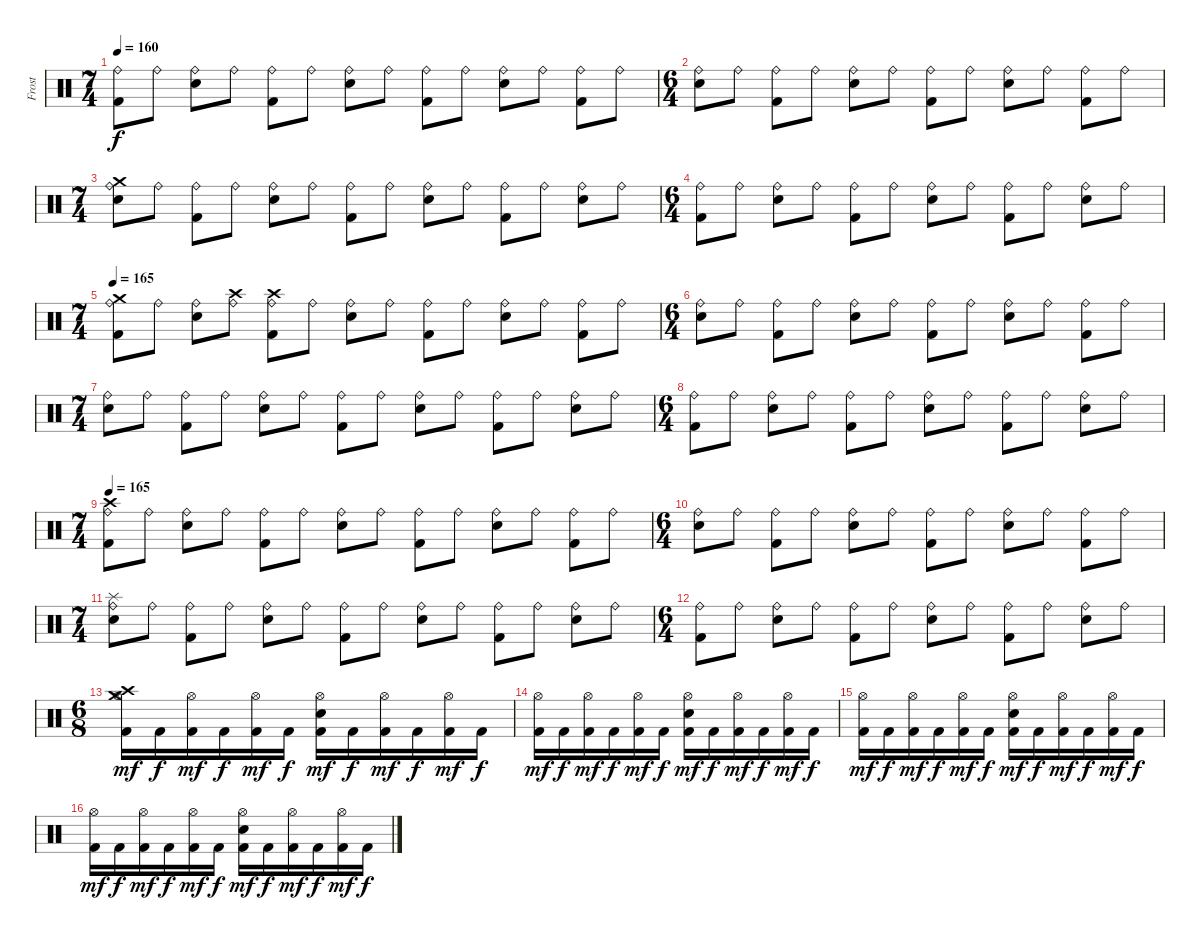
\track ("Frost" "Frost") {instrument percussion}
\staff {score}
\articulation defaults
\ts (7 4)
\tempo 160
\clef neutral
\ks c
("Kick (hit) 2" "Ride (bell)").8{dy f} "Ride (bell)".8 ("Snare (hit) 2" "Ride (bell)").8 "Ride (bell)".8 ("Kick (hit) 2" "Ride (bell)").8 "Ride (bell)".8 ("Snare (hit) 2" "Ride (bell)").8 "Ride (bell)".8 ("Kick (hit) 2" "Ride (bell)").8 "Ride (bell)".8 ("Snare (hit) 2" "Ride (bell)").8 "Ride (bell)".8 ("Kick (hit) 2" "Ride (bell)").8 "Ride (bell)".8 |
\ts (6 4)
("Snare (hit) 2" "Ride (bell)").8 "Ride (bell)".8 ("Kick (hit) 2" "Ride (bell)").8 "Ride (bell)".8 ("Snare (hit) 2" "Ride (bell)").8 "Ride (bell)".8 ("Kick (hit) 2" "Ride (bell)").8 "Ride (bell)".8 ("Snare (hit) 2" "Ride (bell)").8 "Ride (bell)".8 ("Kick (hit) 2" "Ride (bell)").8 "Ride (bell)".8 |
\ts (7 4)
("Crash medium (hit)" "Snare (hit) 2" "Ride (bell)").8 "Ride (bell)".8 ("Kick (hit) 2" "Ride (bell)").8 "Ride (bell)".8 ("Snare (hit) 2" "Ride (bell)").8 "Ride (bell)".8 ("Kick (hit) 2" "Ride (bell)").8 "Ride (bell)".8 ("Snare (hit) 2" "Ride (bell)").8 "Ride (bell)".8 ("Kick (hit) 2" "Ride (bell)").8 "Ride (bell)".8 ("Snare (hit) 2" "Ride (bell)").8 "Ride (bell)".8 |
\ts (6 4)
("Kick (hit) 2" "Ride (bell)").8 "Ride (bell)".8 ("Snare (hit) 2" "Ride (bell)").8 "Ride (bell)".8 ("Kick (hit) 2" "Ride (bell)").8 "Ride (bell)".8 ("Snare (hit) 2" "Ride (bell)").8 "Ride (bell)".8 ("Kick (hit) 2" "Ride (bell)").8 "Ride (bell)".8 ("Snare (hit) 2" "Ride (bell)").8 "Ride (bell)".8 |
\ts (7 4)
\tempo 165
("Kick (hit) 2" "Crash medium (hit)" "Ride (bell)").8 "Ride (bell)".8 ("Snare (hit) 2" "Ride (bell)").8 ("Crash high (hit)" "Ride (bell)").8 ("Kick (hit) 2" "Crash high (hit)" "Ride (bell)").8 "Ride (bell)".8 ("Snare (hit) 2" "Ride (bell)").8 "Ride (bell)".8 ("Kick (hit) 2" "Ride (bell)").8 "Ride (bell)".8 ("Snare (hit) 2" "Ride (bell)").8 "Ride (bell)".8 ("Kick (hit) 2" "Ride (bell)").8 "Ride (bell)".8 |
\ts (6 4)
("Snare (hit) 2" "Ride (bell)").8 "Ride (bell)".8 ("Kick (hit) 2" "Ride (bell)").8 "Ride (bell)".8 ("Snare (hit) 2" "Ride (bell)").8 "Ride (bell)".8 ("Kick (hit) 2" "Ride (bell)").8 "Ride (bell)".8 ("Snare (hit) 2" "Ride (bell)").8 "Ride (bell)".8 ("Kick (hit) 2" "Ride (bell)").8 "Ride (bell)".8 |
\ts (7 4)
("Snare (hit) 2" "Ride (bell)").8 "Ride (bell)".8 ("Kick (hit) 2" "Ride (bell)").8 "Ride (bell)".8 ("Snare (hit) 2" "Ride (bell)").8 "Ride (bell)".8 ("Kick (hit) 2" "Ride (bell)").8 "Ride (bell)".8 ("Snare (hit) 2" "Ride (bell)").8 "Ride (bell)".8 ("Kick (hit) 2" "Ride (bell)").8 "Ride (bell)".8 ("Snare (hit) 2" "Ride (bell)").8 "Ride (bell)".8 |
\ts (6 4)
("Kick (hit) 2" "Ride (bell)").8 "Ride (bell)".8 ("Snare (hit) 2" "Ride (bell)").8 "Ride (bell)".8 ("Kick (hit) 2" "Ride (bell)").8 "Ride (bell)".8 ("Snare (hit) 2" "Ride (bell)").8 "Ride (bell)".8 ("Kick (hit) 2" "Ride (bell)").8 "Ride (bell)".8 ("Snare (hit) 2" "Ride (bell)").8 "Ride (bell)".8 |
\ts (7 4)
\tempo 165
("Kick (hit) 2" "Crash high (hit)" "Ride (bell)").8 "Ride (bell)".8 ("Snare (hit) 2" "Ride (bell)").8 "Ride (bell)".8 ("Kick (hit) 2" "Ride (bell)").8 "Ride (bell)".8 ("Snare (hit) 2" "Ride (bell)").8 "Ride (bell)".8 ("Kick (hit) 2" "Ride (bell)").8 "Ride (bell)".8 ("Snare (hit) 2" "Ride (bell)").8 "Ride (bell)".8 ("Kick (hit) 2" "Ride (bell)").8 "Ride (bell)".8 |
\ts (6 4)
("Snare (hit) 2" "Ride (bell)").8 "Ride (bell)".8 ("Kick (hit) 2" "Ride (bell)").8 "Ride (bell)".8 ("Snare (hit) 2" "Ride (bell)").8 "Ride (bell)".8 ("Kick (hit) 2" "Ride (bell)").8 "Ride (bell)".8 ("Snare (hit) 2" "Ride (bell)").8 "Ride (bell)".8 ("Kick (hit) 2" "Ride (bell)").8 "Ride (bell)".8 |
\ts (7 4)
("Splash (hit)" "Snare (hit) 2" "Ride (bell)").8 "Ride (bell)".8 ("Kick (hit) 2" "Ride (bell)").8 "Ride (bell)".8 ("Snare (hit) 2" "Ride (bell)").8 "Ride (bell)".8 ("Kick (hit) 2" "Ride (bell)").8 "Ride (bell)".8 ("Snare (hit) 2" "Ride (bell)").8 "Ride (bell)".8 ("Kick (hit) 2" "Ride (bell)").8 "Ride (bell)".8 ("Snare (hit) 2" "Ride (bell)").8 "Ride (bell)".8 |
\ts (6 4)
("Kick (hit) 2" "Ride (bell)").8 "Ride (bell)".8 ("Snare (hit) 2" "Ride (bell)").8 "Ride (bell)".8 ("Kick (hit) 2" "Ride (bell)").8 "Ride (bell)".8 ("Snare (hit) 2" "Ride (bell)").8 "Ride (bell)".8 ("Kick (hit) 2" "Ride (bell)").8 "Ride (bell)".8 ("Snare (hit) 2" "Ride (bell)").8 "Ride (bell)".8 |
\ts (6 8)
("Kick (hit) 2" "Crash high (hit)" "Crash medium (hit)" "Hi-Hat (open)").16{dy mf} "Kick (hit) 2".16{dy f} ("Kick (hit) 2" "Hi-Hat (open)").16{dy mf} "Kick (hit) 2".16{dy f} ("Kick (hit) 2" "Hi-Hat (open)").16{dy mf} "Kick (hit) 2".16{dy f} ("Kick (hit) 2" "Hi-Hat (open)" "Snare (hit) 2").16{dy mf} "Kick (hit) 2".16{dy f} ("Kick (hit) 2" "Hi-Hat (open)").16{dy mf} "Kick (hit) 2".16{dy f} ("Kick (hit) 2" "Hi-Hat (open)").16{dy mf} "Kick (hit) 2".16{dy f} |
("Kick (hit) 2" "Hi-Hat (open)").16{dy mf} "Kick (hit) 2".16{dy f} ("Kick (hit) 2" "Hi-Hat (open)").16{dy mf} "Kick (hit) 2".16{dy f} ("Kick (hit) 2" "Hi-Hat (open)").16{dy mf} "Kick (hit) 2".16{dy f} ("Kick (hit) 2" "Hi-Hat (open)" "Snare (hit) 2").16{dy mf} "Kick (hit) 2".16{dy f} ("Kick (hit) 2" "Hi-Hat (open)").16{dy mf} "Kick (hit) 2".16{dy f} ("Kick (hit) 2" "Hi-Hat (open)").16{dy mf} "Kick (hit) 2".16{dy f} |
("Kick (hit) 2" "Hi-Hat (open)").16{dy mf} "Kick (hit) 2".16{dy f} ("Kick (hit) 2" "Hi-Hat (open)").16{dy mf} "Kick (hit) 2".16{dy f} ("Kick (hit) 2" "Hi-Hat (open)").16{dy mf} "Kick (hit) 2".16{dy f} ("Kick (hit) 2" "Hi-Hat (open)" "Snare (hit) 2").16{dy mf} "Kick (hit) 2".16{dy f} ("Kick (hit) 2" "Hi-Hat (open)").16{dy mf} "Kick (hit) 2".16{dy f} ("Kick (hit) 2" "Hi-Hat (open)").16{dy mf} "Kick (hit) 2".16{dy f} |
("Kick (hit) 2" "Hi-Hat (open)").16{dy mf} "Kick (hit) 2".16{dy f} ("Kick (hit) 2" "Hi-Hat (open)").16{dy mf} "Kick (hit) 2".16{dy f} ("Kick (hit) 2" "Hi-Hat (open)").16{dy mf} "Kick (hit) 2".16{dy f} ("Kick (hit) 2" "Hi-Hat (open)" "Snare (hit) 2").16{dy mf} "Kick (hit) 2".16{dy f} ("Kick (hit) 2" "Hi-Hat (open)").16{dy mf} "Kick (hit) 2".16{dy f} ("Kick (hit) 2" "Hi-Hat (open)").16{dy mf} "Kick (hit) 2".16{dy f}
